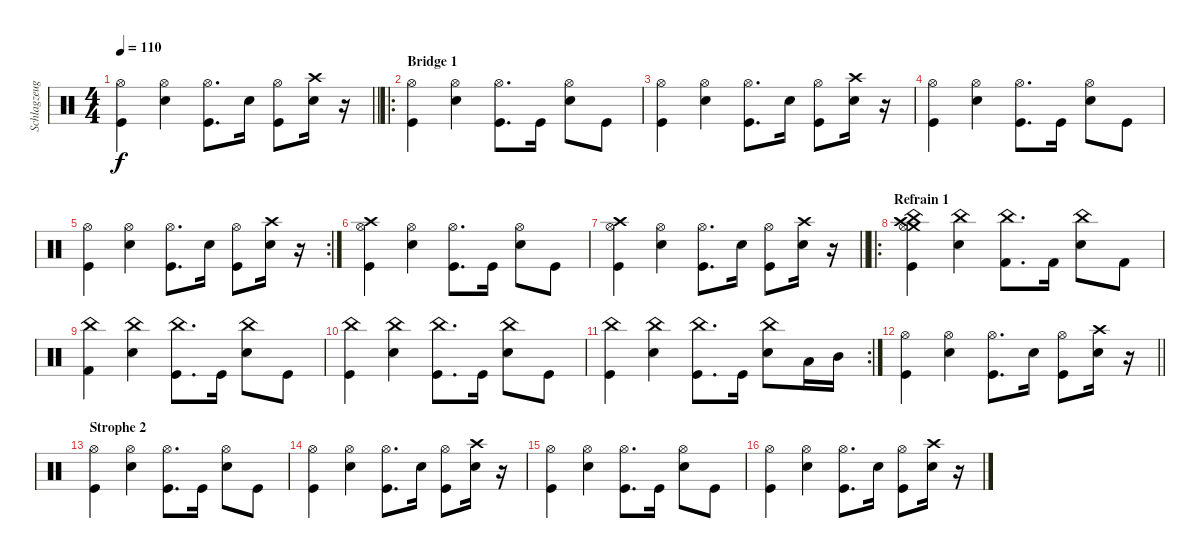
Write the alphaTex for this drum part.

\track ("Schlagzeug" "Schlagzeug") {instrument percussion}
\staff {score}
\articulation defaults
\ts (4 4)
\tempo 110
\clef neutral
\barLineRight lightlight
\ks c
("Hi-Hat (open)" "Kick (hit)").4{dy f} ("Hi-Hat (open)" "Snare (hit) 2").4 ("Hi-Hat (open)" "Kick (hit)").8{d} "Snare (hit) 2".16 ("Hi-Hat (open)" "Kick (hit)").8 ("Snare (hit) 2" "Crash high (hit)").16 r.16 |
\ro
\section ("" "Bridge 1")
("Hi-Hat (open)" "Kick (hit)").4 ("Hi-Hat (open)" "Snare (hit) 2").4 ("Hi-Hat (open)" "Kick (hit)").8{d} "Kick (hit)".16 ("Hi-Hat (open)" "Snare (hit) 2").8 "Kick (hit)".8 |
("Hi-Hat (open)" "Kick (hit)").4 ("Hi-Hat (open)" "Snare (hit) 2").4 ("Hi-Hat (open)" "Kick (hit)").8{d} "Snare (hit) 2".16 ("Hi-Hat (open)" "Kick (hit)").8 ("Snare (hit) 2" "Crash high (hit)").16 r.16 |
("Hi-Hat (open)" "Kick (hit)").4 ("Hi-Hat (open)" "Snare (hit) 2").4 ("Hi-Hat (open)" "Kick (hit)").8{d} "Kick (hit)".16 ("Hi-Hat (open)" "Snare (hit) 2").8 "Kick (hit)".8 |
\rc 2
("Hi-Hat (open)" "Kick (hit)").4 ("Hi-Hat (open)" "Snare (hit) 2").4 ("Hi-Hat (open)" "Kick (hit)").8{d} "Snare (hit) 2".16 ("Hi-Hat (open)" "Kick (hit)").8 ("Snare (hit) 2" "Crash high (hit)").16 r.16 |
("Crash high (hit)" "Hi-Hat (open)" "Kick (hit)").4 ("Hi-Hat (open)" "Snare (hit) 2").4 ("Hi-Hat (open)" "Kick (hit)").8{d} "Kick (hit)".16 ("Hi-Hat (open)" "Snare (hit) 2").8 "Kick (hit)".8 |
\barLineRight lightlight
("Crash high (hit)" "Hi-Hat (open)" "Kick (hit)").4 ("Hi-Hat (open)" "Snare (hit) 2").4 ("Hi-Hat (open)" "Kick (hit)").8{d} "Snare (hit) 2".16 ("Hi-Hat (open)" "Kick (hit)").8 ("Snare (hit) 2" "Crash high (hit)").16 r.16 |
\ro
\section ("" "Refrain 1")
("Kick (hit)" "Crash high (hit)" "China (hit)" "Crash medium (hit)" "Hi-Hat (open)").4 ("China (hit)" "Snare (hit) 2").4 ("China (hit)" "Kick (hit) 2").8{d} "Kick (hit) 2".16 ("China (hit)" "Snare (hit) 2").8 "Kick (hit) 2".8 |
("China (hit)" "Kick (hit) 2").4 ("China (hit)" "Snare (hit) 2").4 ("China (hit)" "Kick (hit)").8{d} "Kick (hit)".16 ("China (hit)" "Snare (hit) 2").8 "Kick (hit)".8 |
("China (hit)" "Kick (hit)").4 ("China (hit)" "Snare (hit) 2").4 ("China (hit)" "Kick (hit)").8{d} "Kick (hit)".16 ("China (hit)" "Snare (hit) 2").8 "Kick (hit)".8 |
\rc 2
("China (hit)" "Kick (hit)").4 ("China (hit)" "Snare (hit) 2").4 ("China (hit)" "Kick (hit)").8{d} "Kick (hit)".16 ("Snare (hit) 2" "China (hit)").8 "Low Floor Tom (hit)".16 "Mid Tom (hit)".16 |
\barLineRight lightlight
("Hi-Hat (open)" "Kick (hit)").4 ("Hi-Hat (open)" "Snare (hit) 2").4 ("Hi-Hat (open)" "Kick (hit)").8{d} "Snare (hit) 2".16 ("Hi-Hat (open)" "Kick (hit)").8 ("Snare (hit) 2" "Crash high (hit)").16 r.16 |
\section ("" "Strophe 2")
("Hi-Hat (open)" "Kick (hit)").4 ("Hi-Hat (open)" "Snare (hit) 2").4 ("Hi-Hat (open)" "Kick (hit)").8{d} "Kick (hit)".16 ("Hi-Hat (open)" "Snare (hit) 2").8 "Kick (hit)".8 |
("Hi-Hat (open)" "Kick (hit)").4 ("Hi-Hat (open)" "Snare (hit) 2").4 ("Hi-Hat (open)" "Kick (hit)").8{d} "Snare (hit) 2".16 ("Hi-Hat (open)" "Kick (hit)").8 ("Snare (hit) 2" "Crash high (hit)").16 r.16 |
("Hi-Hat (open)" "Kick (hit)").4 ("Hi-Hat (open)" "Snare (hit) 2").4 ("Hi-Hat (open)" "Kick (hit)").8{d} "Kick (hit)".16 ("Hi-Hat (open)" "Snare (hit) 2").8 "Kick (hit)".8 |
("Hi-Hat (open)" "Kick (hit)").4 ("Hi-Hat (open)" "Snare (hit) 2").4 ("Hi-Hat (open)" "Kick (hit)").8{d} "Snare (hit) 2".16 ("Hi-Hat (open)" "Kick (hit)").8 ("Snare (hit) 2" "Crash high (hit)").16 r.16
